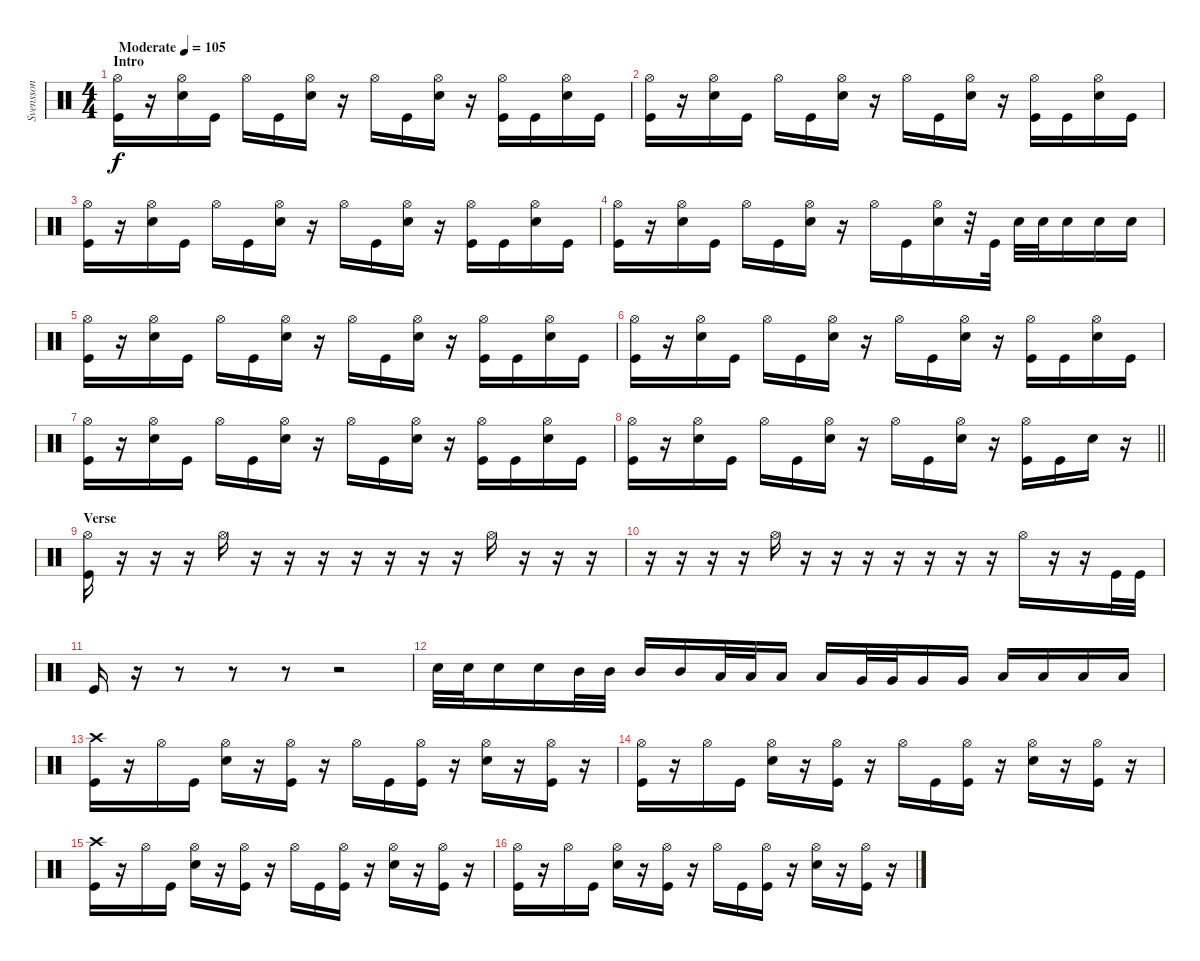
\track ("Svensson" "Svensson") {instrument percussion}
\staff {score}
\articulation defaults
\ts (4 4)
\section ("" "Intro")
\tempo (105 "Moderate")
\clef neutral
\ks c
("Hi-Hat (open)" "Kick (hit)").16{dy f} r.16 ("Hi-Hat (open)" "Snare (hit) 2").16 "Kick (hit)".16 "Hi-Hat (open)".16 "Kick (hit)".16 ("Hi-Hat (open)" "Snare (hit) 2").16 r.16 "Hi-Hat (open)".16 "Kick (hit)".16 ("Hi-Hat (open)" "Snare (hit) 2").16 r.16 ("Hi-Hat (open)" "Kick (hit)").16 "Kick (hit)".16 ("Hi-Hat (open)" "Snare (hit) 2").16 "Kick (hit)".16 |
("Hi-Hat (open)" "Kick (hit)").16 r.16 ("Hi-Hat (open)" "Snare (hit) 2").16 "Kick (hit)".16 "Hi-Hat (open)".16 "Kick (hit)".16 ("Hi-Hat (open)" "Snare (hit) 2").16 r.16 "Hi-Hat (open)".16 "Kick (hit)".16 ("Hi-Hat (open)" "Snare (hit) 2").16 r.16 ("Hi-Hat (open)" "Kick (hit)").16 "Kick (hit)".16 ("Hi-Hat (open)" "Snare (hit) 2").16 "Kick (hit)".16 |
("Hi-Hat (open)" "Kick (hit)").16 r.16 ("Hi-Hat (open)" "Snare (hit) 2").16 "Kick (hit)".16 "Hi-Hat (open)".16 "Kick (hit)".16 ("Hi-Hat (open)" "Snare (hit) 2").16 r.16 "Hi-Hat (open)".16 "Kick (hit)".16 ("Hi-Hat (open)" "Snare (hit) 2").16 r.16 ("Hi-Hat (open)" "Kick (hit)").16 "Kick (hit)".16 ("Hi-Hat (open)" "Snare (hit) 2").16 "Kick (hit)".16 |
("Hi-Hat (open)" "Kick (hit)").16 r.16 ("Hi-Hat (open)" "Snare (hit) 2").16 "Kick (hit)".16 "Hi-Hat (open)".16 "Kick (hit)".16 ("Hi-Hat (open)" "Snare (hit) 2").16 r.16 "Hi-Hat (open)".16 "Kick (hit)".16 ("Hi-Hat (open)" "Snare (hit) 2").16 r.32 "Kick (hit)".32 "Snare (hit) 2".32 "Snare (hit) 2".32 "Snare (hit) 2".16 "Snare (hit) 2".16 "Snare (hit) 2".16 |
("Hi-Hat (open)" "Kick (hit)").16 r.16 ("Hi-Hat (open)" "Snare (hit) 2").16 "Kick (hit)".16 "Hi-Hat (open)".16 "Kick (hit)".16 ("Hi-Hat (open)" "Snare (hit) 2").16 r.16 "Hi-Hat (open)".16 "Kick (hit)".16 ("Hi-Hat (open)" "Snare (hit) 2").16 r.16 ("Hi-Hat (open)" "Kick (hit)").16 "Kick (hit)".16 ("Hi-Hat (open)" "Snare (hit) 2").16 "Kick (hit)".16 |
("Hi-Hat (open)" "Kick (hit)").16 r.16 ("Hi-Hat (open)" "Snare (hit) 2").16 "Kick (hit)".16 "Hi-Hat (open)".16 "Kick (hit)".16 ("Hi-Hat (open)" "Snare (hit) 2").16 r.16 "Hi-Hat (open)".16 "Kick (hit)".16 ("Hi-Hat (open)" "Snare (hit) 2").16 r.16 ("Hi-Hat (open)" "Kick (hit)").16 "Kick (hit)".16 ("Hi-Hat (open)" "Snare (hit) 2").16 "Kick (hit)".16 |
("Hi-Hat (open)" "Kick (hit)").16 r.16 ("Hi-Hat (open)" "Snare (hit) 2").16 "Kick (hit)".16 "Hi-Hat (open)".16 "Kick (hit)".16 ("Hi-Hat (open)" "Snare (hit) 2").16 r.16 "Hi-Hat (open)".16 "Kick (hit)".16 ("Hi-Hat (open)" "Snare (hit) 2").16 r.16 ("Hi-Hat (open)" "Kick (hit)").16 "Kick (hit)".16 ("Hi-Hat (open)" "Snare (hit) 2").16 "Kick (hit)".16 |
\barLineRight lightlight
("Hi-Hat (open)" "Kick (hit)").16 r.16 ("Hi-Hat (open)" "Snare (hit) 2").16 "Kick (hit)".16 "Hi-Hat (open)".16 "Kick (hit)".16 ("Hi-Hat (open)" "Snare (hit) 2").16 r.16 "Hi-Hat (open)".16 "Kick (hit)".16 ("Hi-Hat (open)" "Snare (hit) 2").16 r.16 ("Hi-Hat (open)" "Kick (hit)").16 "Kick (hit)".16 "Snare (hit) 2".16 r.16 |
\section ("" "Verse")
("Hi-Hat (open)" "Kick (hit)").16 r.16 r.16 r.16 "Hi-Hat (open)".16 r.16 r.16 r.16 r.16 r.16 r.16 r.16 "Hi-Hat (open)".16 r.16 r.16 r.16 |
r.16 r.16 r.16 r.16 "Hi-Hat (open)".16 r.16 r.16 r.16 r.16 r.16 r.16 r.16 "Hi-Hat (open)".16 r.16 r.16 "Kick (hit)".32 "Kick (hit)".32 |
"Kick (hit)".16 r.16 r.8 r.8 r.8 r.2 |
"Snare (hit) 2".32 "Snare (hit) 2".32 "Snare (hit) 2".16 "Snare (hit) 2".16 "Mid Tom (hit)".32 "Mid Tom (hit)".32 "Mid Tom (hit)".16 "Mid Tom (hit)".16 "Low Tom (hit)".32 "Low Tom (hit)".32 "Low Tom (hit)".16 "Low Tom (hit)".16 "Very Low Tom (hit)".32 "Very Low Tom (hit)".32 "Very Low Tom (hit)".16 "Very Low Tom (hit)".16 "Low Floor Tom (hit)".16 "Low Floor Tom (hit)".16 "Low Floor Tom (hit)".16 "Low Floor Tom (hit)".16 |
("Crash high (hit)" "Kick (hit)").16 r.16 "Hi-Hat (open)".16 "Kick (hit)".16 ("Hi-Hat (open)" "Snare (hit) 2").16 r.16 ("Hi-Hat (open)" "Kick (hit)").16 r.16 "Hi-Hat (open)".16 "Kick (hit)".16 ("Hi-Hat (open)" "Kick (hit)").16 r.16 ("Hi-Hat (open)" "Snare (hit) 2").16 r.16 ("Hi-Hat (open)" "Kick (hit)").16 r.16 |
("Hi-Hat (open)" "Kick (hit)").16 r.16 "Hi-Hat (open)".16 "Kick (hit)".16 ("Hi-Hat (open)" "Snare (hit) 2").16 r.16 ("Hi-Hat (open)" "Kick (hit)").16 r.16 "Hi-Hat (open)".16 "Kick (hit)".16 ("Hi-Hat (open)" "Kick (hit)").16 r.16 ("Hi-Hat (open)" "Snare (hit) 2").16 r.16 ("Hi-Hat (open)" "Kick (hit)").16 r.16 |
("Crash high (hit)" "Kick (hit)").16 r.16 "Hi-Hat (open)".16 "Kick (hit)".16 ("Hi-Hat (open)" "Snare (hit) 2").16 r.16 ("Hi-Hat (open)" "Kick (hit)").16 r.16 "Hi-Hat (open)".16 "Kick (hit)".16 ("Hi-Hat (open)" "Kick (hit)").16 r.16 ("Hi-Hat (open)" "Snare (hit) 2").16 r.16 ("Hi-Hat (open)" "Kick (hit)").16 r.16 |
("Hi-Hat (open)" "Kick (hit)").16 r.16 "Hi-Hat (open)".16 "Kick (hit)".16 ("Hi-Hat (open)" "Snare (hit) 2").16 r.16 ("Hi-Hat (open)" "Kick (hit)").16 r.16 "Hi-Hat (open)".16 "Kick (hit)".16 ("Hi-Hat (open)" "Kick (hit)").16 r.16 ("Hi-Hat (open)" "Snare (hit) 2").16 r.16 ("Hi-Hat (open)" "Kick (hit)").16 r.16
